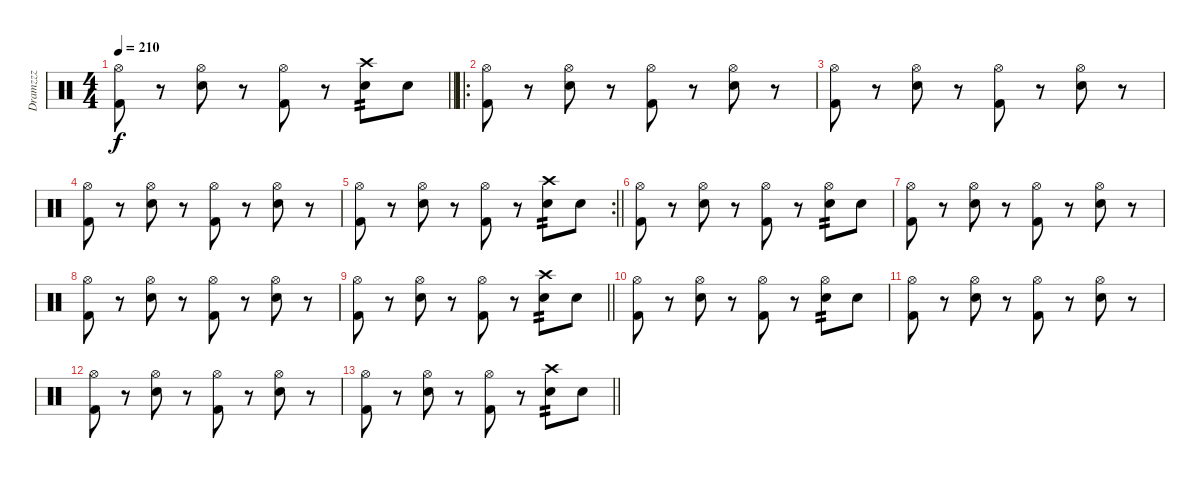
\track ("Dramzzz" "Dramzzz") {instrument percussion}
\staff {score}
\articulation defaults
\ts (4 4)
\tempo 210
\clef neutral
\barLineRight lightlight
\ks c
("Hi-Hat (open)" "Kick (hit) 2").8{dy f} r.8 ("Hi-Hat (open)" "Electric Snare (hit)").8 r.8 ("Hi-Hat (open)" "Kick (hit) 2").8 r.8 ("Crash high (hit)" "Electric Snare (hit)").8{tp 2} "Electric Snare (hit)".8 |
\ro
("Hi-Hat (open)" "Kick (hit) 2").8 r.8 ("Hi-Hat (open)" "Electric Snare (hit)").8 r.8 ("Hi-Hat (open)" "Kick (hit) 2").8 r.8 ("Hi-Hat (open)" "Electric Snare (hit)").8 r.8 |
("Hi-Hat (open)" "Kick (hit) 2").8 r.8 ("Hi-Hat (open)" "Electric Snare (hit)").8 r.8 ("Hi-Hat (open)" "Kick (hit) 2").8 r.8 ("Hi-Hat (open)" "Electric Snare (hit)").8 r.8 |
("Hi-Hat (open)" "Kick (hit) 2").8 r.8 ("Hi-Hat (open)" "Electric Snare (hit)").8 r.8 ("Hi-Hat (open)" "Kick (hit) 2").8 r.8 ("Hi-Hat (open)" "Electric Snare (hit)").8 r.8 |
\rc 2
\barLineRight lightlight
("Hi-Hat (open)" "Kick (hit) 2").8 r.8 ("Hi-Hat (open)" "Electric Snare (hit)").8 r.8 ("Hi-Hat (open)" "Kick (hit) 2").8 r.8 ("Crash high (hit)" "Electric Snare (hit)").8{tp 2} "Electric Snare (hit)".8 |
("Hi-Hat (open)" "Kick (hit) 2").8 r.8 ("Hi-Hat (open)" "Electric Snare (hit)").8 r.8 ("Hi-Hat (open)" "Kick (hit) 2").8 r.8 ("Hi-Hat (open)" "Electric Snare (hit)").8{tp 2} "Electric Snare (hit)".8 |
("Hi-Hat (open)" "Kick (hit) 2").8 r.8 ("Hi-Hat (open)" "Electric Snare (hit)").8 r.8 ("Hi-Hat (open)" "Kick (hit) 2").8 r.8 ("Hi-Hat (open)" "Electric Snare (hit)").8 r.8 |
("Hi-Hat (open)" "Kick (hit) 2").8 r.8 ("Hi-Hat (open)" "Electric Snare (hit)").8 r.8 ("Hi-Hat (open)" "Kick (hit) 2").8 r.8 ("Hi-Hat (open)" "Electric Snare (hit)").8 r.8 |
\barLineRight lightlight
("Hi-Hat (open)" "Kick (hit) 2").8 r.8 ("Hi-Hat (open)" "Electric Snare (hit)").8 r.8 ("Hi-Hat (open)" "Kick (hit) 2").8 r.8 ("Crash high (hit)" "Electric Snare (hit)").8{tp 2} "Electric Snare (hit)".8 |
("Hi-Hat (open)" "Kick (hit) 2").8 r.8 ("Hi-Hat (open)" "Electric Snare (hit)").8 r.8 ("Hi-Hat (open)" "Kick (hit) 2").8 r.8 ("Hi-Hat (open)" "Electric Snare (hit)").8{tp 2} "Electric Snare (hit)".8 |
("Hi-Hat (open)" "Kick (hit) 2").8 r.8 ("Hi-Hat (open)" "Electric Snare (hit)").8 r.8 ("Hi-Hat (open)" "Kick (hit) 2").8 r.8 ("Hi-Hat (open)" "Electric Snare (hit)").8 r.8 |
("Hi-Hat (open)" "Kick (hit) 2").8 r.8 ("Hi-Hat (open)" "Electric Snare (hit)").8 r.8 ("Hi-Hat (open)" "Kick (hit) 2").8 r.8 ("Hi-Hat (open)" "Electric Snare (hit)").8 r.8 |
\barLineRight lightlight
("Hi-Hat (open)" "Kick (hit) 2").8 r.8 ("Hi-Hat (open)" "Electric Snare (hit)").8 r.8 ("Hi-Hat (open)" "Kick (hit) 2").8 r.8 ("Crash high (hit)" "Electric Snare (hit)").8{tp 2} "Electric Snare (hit)".8
